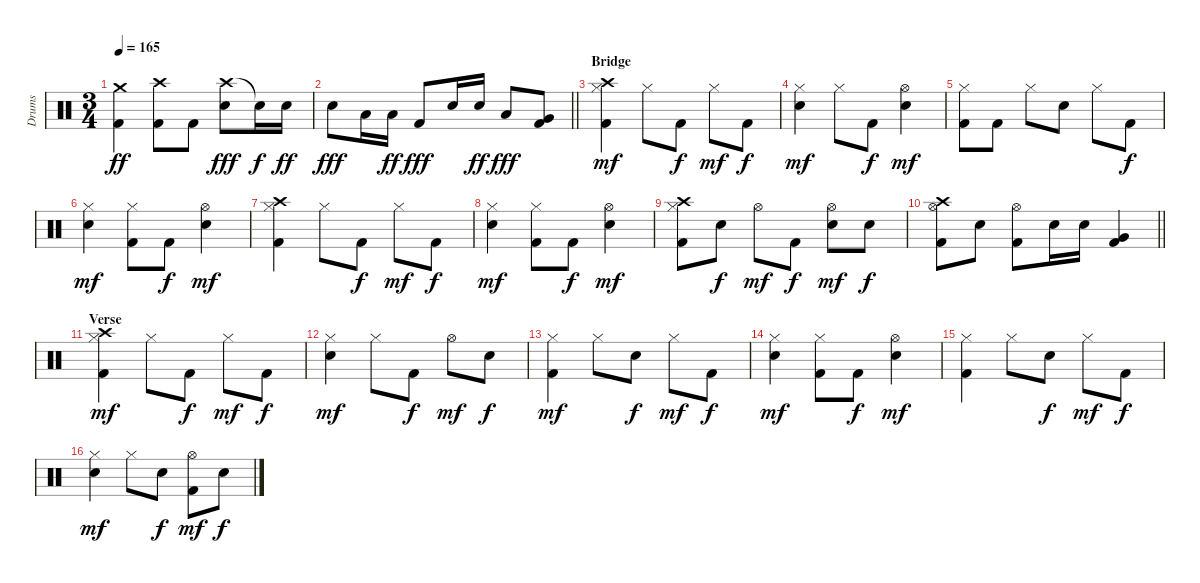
\track ("Drums" "Drums") {instrument percussion}
\staff {score}
\articulation defaults
\ts (3 4)
\tempo 165
\clef neutral
\ks c
("Crash medium (hit)" "Kick (hit) 2").4{dy ff} ("Crash high (hit)" "Kick (hit) 2").8 "Kick (hit) 2".8 ("Crash high (hit)" "Snare (hit) 2").8{dy fff} "Snare (hit)"{t}.16{dy f} "Snare (hit) 2".16{dy ff} |
\barLineRight lightlight "Snare (hit) 2".8{dy fff} "Low Tom (hit)".16 "Low Tom (hit)".16{dy ff} "Kick (hit) 2".8{dy fff} "Snare (hit) 2".16 "Snare (hit) 2".16{dy ff} "Low Tom (hit)".8{dy fff}
("Very Low Tom (hit)" "Kick (hit) 2").8 |
\section ("" "Bridge")
("Crash high (hit)" "Hi-Hat (closed)" "Kick (hit) 2").4{dy mf} "Hi-Hat (closed)".8 "Kick (hit) 2".8{dy f} "Hi-Hat (closed)".8{dy mf} "Kick (hit) 2".8{dy f} |
("Hi-Hat (closed)" "Snare (hit) 2").4{dy mf} "Hi-Hat (closed)".8 "Kick (hit) 2".8{dy f} ("Hi-Hat (open)" "Snare (hit) 2").4{dy mf} |
("Hi-Hat (closed)" "Kick (hit) 2").8 "Kick (hit) 2".8 "Hi-Hat (closed)".8 "Snare (hit) 2".8 "Hi-Hat (closed)".8 "Kick (hit) 2".8{dy f} |
("Hi-Hat (closed)" "Snare (hit) 2").4{dy mf} ("Hi-Hat (closed)" "Kick (hit) 2").8 "Kick (hit) 2".8{dy f} ("Hi-Hat (open)" "Snare (hit) 2").4{dy mf} |
("Crash high (hit)" "Hi-Hat (closed)" "Kick (hit) 2").4 "Hi-Hat (closed)".8 "Kick (hit) 2".8{dy f} "Hi-Hat (closed)".8{dy mf} "Kick (hit) 2".8{dy f} |
("Hi-Hat (closed)" "Snare (hit) 2").4{dy mf} ("Hi-Hat (closed)" "Kick (hit) 2").8 "Kick (hit) 2".8{dy f} ("Hi-Hat (open)" "Snare (hit) 2").4{dy mf} |
("Crash high (hit)" "Hi-Hat (closed)" "Kick (hit) 2").8 "Snare (hit) 2".8{dy f} "Hi-Hat (open)".8{dy mf} "Kick (hit) 2".8{dy f} ("Hi-Hat (open)" "Snare (hit) 2").8{dy mf} "Snare (hit) 2".8{dy f} |
\barLineRight lightlight
("Crash high (hit)" "Hi-Hat (open)" "Kick (hit) 2").8 "Snare (hit) 2".8 ("Hi-Hat (open)" "Kick (hit) 2").8 "Snare (hit) 2".16 "Snare (hit) 2".16 ("Very Low Tom (hit)" "Kick (hit) 2").4 |
\section ("" "Verse")
("Crash high (hit)" "Hi-Hat (closed)" "Kick (hit) 2").4{dy mf} "Hi-Hat (closed)".8 "Kick (hit) 2".8{dy f} "Hi-Hat (closed)".8{dy mf} "Kick (hit) 2".8{dy f} |
("Hi-Hat (closed)" "Snare (hit) 2").4{dy mf} "Hi-Hat (closed)".8 "Kick (hit) 2".8{dy f} "Hi-Hat (open)".8{dy mf} "Snare (hit) 2".8{dy f} |
("Hi-Hat (closed)" "Kick (hit) 2").4{dy mf} "Hi-Hat (closed)".8 "Snare (hit) 2".8{dy f} "Hi-Hat (closed)".8{dy mf} "Kick (hit) 2".8{dy f} |
("Hi-Hat (closed)" "Snare (hit) 2").4{dy mf} ("Hi-Hat (closed)" "Kick (hit) 2").8 "Kick (hit) 2".8{dy f} ("Hi-Hat (open)" "Snare (hit) 2").4{dy mf} |
("Hi-Hat (closed)" "Kick (hit) 2").4 "Hi-Hat (closed)".8 "Snare (hit) 2".8{dy f} "Hi-Hat (closed)".8{dy mf} "Kick (hit) 2".8{dy f} |
("Hi-Hat (closed)" "Snare (hit) 2").4{dy mf} "Hi-Hat (closed)".8 "Snare (hit) 2".8{dy f} ("Hi-Hat (open)" "Kick (hit) 2").8{dy mf} "Snare (hit) 2".8{dy f}
